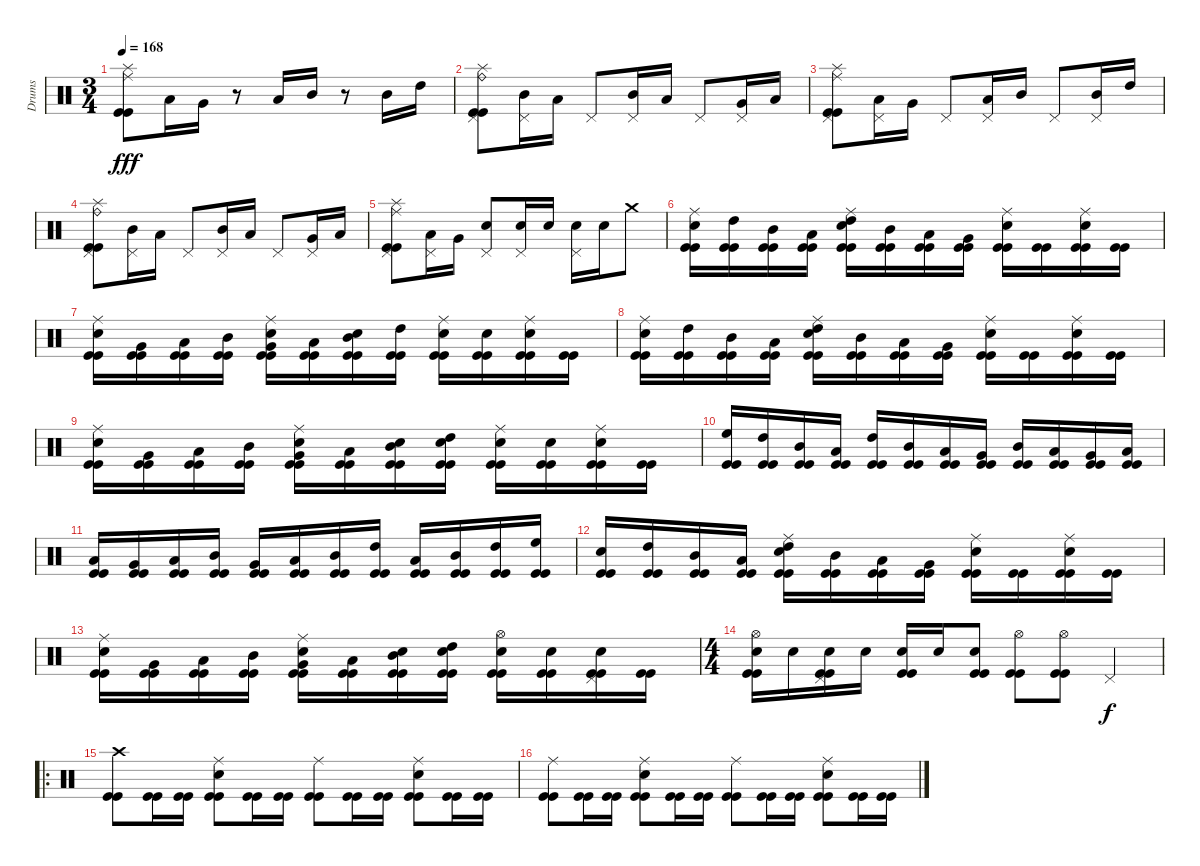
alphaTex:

\track ("Drums" "Drums") {instrument percussion}
\staff {score}
\articulation defaults
\ts (3 4)
\tempo 168
\clef neutral
\ks c
("Splash (hit)" "Ride (middle)" "Kick (hit)" "Kick (hit)").8{dy fff} "Low Floor Tom (hit)".16 "Very Low Tom (hit)".16 r.8 "Low Tom (hit)".16 "Mid Tom (hit)".16 r.8 "Mid Tom (hit)".16 "High Tom (hit)".16 |
("Pedal Hi-Hat (hit)" "Splash (hit)" "Ride (bell)" "Kick (hit)" "Kick (hit)").8 ("Pedal Hi-Hat (hit)" "Mid Tom (hit)").16 "Low Tom (hit)".16 "Pedal Hi-Hat (hit)".8 ("Pedal Hi-Hat (hit)" "Mid Tom (hit)").16 "Low Tom (hit)".16 "Pedal Hi-Hat (hit)".8 ("Pedal Hi-Hat (hit)" "Very Low Tom (hit)").16 "Low Floor Tom (hit)".16 |
("Pedal Hi-Hat (hit)" "Splash (hit)" "Ride (middle)" "Kick (hit)" "Kick (hit)").8 ("Pedal Hi-Hat (hit)" "Low Floor Tom (hit)").16 "Very Low Tom (hit)".16 "Pedal Hi-Hat (hit)".8 ("Pedal Hi-Hat (hit)" "Low Tom (hit)").16 "Mid Tom (hit)".16 "Pedal Hi-Hat (hit)".8 ("Pedal Hi-Hat (hit)" "Mid Tom (hit)").16 "High Tom (hit)".16 |
("Pedal Hi-Hat (hit)" "Splash (hit)" "Ride (bell)" "Kick (hit)" "Kick (hit)").8 ("Pedal Hi-Hat (hit)" "Mid Tom (hit)").16 "Low Tom (hit)".16 "Pedal Hi-Hat (hit)".8 ("Pedal Hi-Hat (hit)" "Mid Tom (hit)").16 "Low Tom (hit)".16 "Pedal Hi-Hat (hit)".8 ("Pedal Hi-Hat (hit)" "Very Low Tom (hit)").16 "Low Floor Tom (hit)".16 |
("Pedal Hi-Hat (hit)" "Splash (hit)" "Ride (middle)" "Kick (hit)" "Kick (hit)").8 ("Pedal Hi-Hat (hit)" "Low Floor Tom (hit)").16 "Very Low Tom (hit)".16 ("Pedal Hi-Hat (hit)" "Electric Snare (hit)").8 ("Pedal Hi-Hat (hit)" "Electric Snare (hit)").16 "Electric Snare (hit)".16 ("Pedal Hi-Hat (hit)" "Electric Snare (hit)").16 "Electric Snare (hit)".16 "Crash medium (hit)".8 |
("Ride (middle)" "Electric Snare (hit)" "Kick (hit)" "Kick (hit)").16 ("High Tom (hit)" "Kick (hit)" "Kick (hit)").16 ("Mid Tom (hit)" "Kick (hit)" "Kick (hit)").16 ("Low Tom (hit)" "Kick (hit)" "Kick (hit)").16 ("Ride (middle)" "High Tom (hit)" "Electric Snare (hit)" "Kick (hit)" "Kick (hit)").16 ("Mid Tom (hit)" "Kick (hit)" "Kick (hit)").16 ("Low Tom (hit)" "Kick (hit)" "Kick (hit)").16 ("Very Low Tom (hit)" "Kick (hit)" "Kick (hit)").16 ("Ride (middle)" "Electric Snare (hit)" "Kick (hit)" "Kick (hit)").16 ("Kick (hit)" "Kick (hit)").16 ("Ride (middle)" "Electric Snare (hit)" "Kick (hit)" "Kick (hit)").16 ("Kick (hit)" "Kick (hit)").16 |
("Ride (middle)" "Electric Snare (hit)" "Kick (hit)" "Kick (hit)").16 ("Very Low Tom (hit)" "Kick (hit)" "Kick (hit)").16 ("Low Tom (hit)" "Kick (hit)" "Kick (hit)").16 ("Mid Tom (hit)" "Kick (hit)" "Kick (hit)").16 ("Ride (middle)" "Very Low Tom (hit)" "Electric Snare (hit)" "Kick (hit)" "Kick (hit)").16 ("Low Tom (hit)" "Kick (hit)" "Kick (hit)").16 ("Mid Tom (hit)" "Electric Snare (hit)" "Kick (hit)" "Kick (hit)").16 ("High Tom (hit)" "Kick (hit)" "Kick (hit)").16 ("Ride (middle)" "Electric Snare (hit)" "Kick (hit)" "Kick (hit)").16 ("Electric Snare (hit)" "Kick (hit)" "Kick (hit)").16 ("Ride (middle)" "Electric Snare (hit)" "Kick (hit)" "Kick (hit)").16 ("Kick (hit)" "Kick (hit)").16 |
("Ride (middle)" "Electric Snare (hit)" "Kick (hit)" "Kick (hit)").16 ("High Tom (hit)" "Kick (hit)" "Kick (hit)").16 ("Mid Tom (hit)" "Kick (hit)" "Kick (hit)").16 ("Low Tom (hit)" "Kick (hit)" "Kick (hit)").16 ("Ride (middle)" "High Tom (hit)" "Electric Snare (hit)" "Kick (hit)" "Kick (hit)").16 ("Mid Tom (hit)" "Kick (hit)" "Kick (hit)").16 ("Low Tom (hit)" "Kick (hit)" "Kick (hit)").16 ("Very Low Tom (hit)" "Kick (hit)" "Kick (hit)").16 ("Ride (middle)" "Electric Snare (hit)" "Kick (hit)" "Kick (hit)").16 ("Kick (hit)" "Kick (hit)").16 ("Ride (middle)" "Electric Snare (hit)" "Kick (hit)" "Kick (hit)").16 ("Kick (hit)" "Kick (hit)").16 |
("Ride (middle)" "Electric Snare (hit)" "Kick (hit)" "Kick (hit)").16 ("Very Low Tom (hit)" "Kick (hit)" "Kick (hit)").16 ("Low Tom (hit)" "Kick (hit)" "Kick (hit)").16 ("Mid Tom (hit)" "Kick (hit)" "Kick (hit)").16 ("Ride (middle)" "Very Low Tom (hit)" "Electric Snare (hit)" "Kick (hit)" "Kick (hit)").16 ("Low Tom (hit)" "Kick (hit)" "Kick (hit)").16 ("Mid Tom (hit)" "Electric Snare (hit)" "Kick (hit)" "Kick (hit)").16 ("High Tom (hit)" "Electric Snare (hit)" "Kick (hit)" "Kick (hit)").16 ("Ride (middle)" "Electric Snare (hit)" "Kick (hit)" "Kick (hit)").16 ("Electric Snare (hit)" "Kick (hit)" "Kick (hit)").16 ("Ride (middle)" "Electric Snare (hit)" "Kick (hit)" "Kick (hit)").16 ("Kick (hit)" "Kick (hit)").16 |
("High Floor Tom (hit)" "Kick (hit)" "Kick (hit)").16 ("High Tom (hit)" "Kick (hit)" "Kick (hit)").16 ("Mid Tom (hit)" "Kick (hit)" "Kick (hit)").16 ("Low Tom (hit)" "Kick (hit)" "Kick (hit)").16 ("High Tom (hit)" "Kick (hit)" "Kick (hit)").16 ("Mid Tom (hit)" "Kick (hit)" "Kick (hit)").16 ("Low Tom (hit)" "Kick (hit)" "Kick (hit)").16 ("Very Low Tom (hit)" "Kick (hit)" "Kick (hit)").16 ("Mid Tom (hit)" "Kick (hit)" "Kick (hit)").16 ("Low Tom (hit)" "Kick (hit)" "Kick (hit)").16 ("Very Low Tom (hit)" "Kick (hit)" "Kick (hit)").16 ("Low Floor Tom (hit)" "Kick (hit)" "Kick (hit)").16 |
("Low Floor Tom (hit)" "Kick (hit)" "Kick (hit)").16 ("Very Low Tom (hit)" "Kick (hit)" "Kick (hit)").16 ("Low Tom (hit)" "Kick (hit)" "Kick (hit)").16 ("Mid Tom (hit)" "Kick (hit)" "Kick (hit)").16 ("Very Low Tom (hit)" "Kick (hit)" "Kick (hit)").16 ("Low Tom (hit)" "Kick (hit)" "Kick (hit)").16 ("Mid Tom (hit)" "Kick (hit)" "Kick (hit)").16 ("High Tom (hit)" "Kick (hit)" "Kick (hit)").16 ("Low Tom (hit)" "Kick (hit)" "Kick (hit)").16 ("Mid Tom (hit)" "Kick (hit)" "Kick (hit)").16 ("High Tom (hit)" "Kick (hit)" "Kick (hit)").16 ("High Floor Tom (hit)" "Kick (hit)" "Kick (hit)").16 |
("Electric Snare (hit)" "Kick (hit)" "Kick (hit)").16 ("High Tom (hit)" "Kick (hit)" "Kick (hit)").16 ("Mid Tom (hit)" "Kick (hit)" "Kick (hit)").16 ("Low Tom (hit)" "Kick (hit)" "Kick (hit)").16 ("Ride (middle)" "High Tom (hit)" "Electric Snare (hit)" "Kick (hit)" "Kick (hit)").16 ("Mid Tom (hit)" "Kick (hit)" "Kick (hit)").16 ("Low Tom (hit)" "Kick (hit)" "Kick (hit)").16 ("Very Low Tom (hit)" "Kick (hit)" "Kick (hit)").16 ("Ride (middle)" "Electric Snare (hit)" "Kick (hit)" "Kick (hit)").16 ("Kick (hit)" "Kick (hit)").16 ("Ride (middle)" "Electric Snare (hit)" "Kick (hit)" "Kick (hit)").16 ("Kick (hit)" "Kick (hit)").16 |
("Ride (middle)" "Electric Snare (hit)" "Kick (hit)" "Kick (hit)").16 ("Very Low Tom (hit)" "Kick (hit)" "Kick (hit)").16 ("Low Tom (hit)" "Kick (hit)" "Kick (hit)").16 ("Mid Tom (hit)" "Kick (hit)" "Kick (hit)").16 ("Ride (middle)" "Very Low Tom (hit)" "Electric Snare (hit)" "Kick (hit)" "Kick (hit)").16 ("Low Tom (hit)" "Kick (hit)" "Kick (hit)").16 ("Mid Tom (hit)" "Electric Snare (hit)" "Kick (hit)" "Kick (hit)").16 ("High Tom (hit)" "Electric Snare (hit)" "Kick (hit)" "Kick (hit)").16 ("Hi-Hat (open)" "Electric Snare (hit)" "Kick (hit)" "Kick (hit)").16 ("Electric Snare (hit)" "Kick (hit)" "Kick (hit)").16 ("Pedal Hi-Hat (hit)" "Electric Snare (hit)" "Kick (hit)" "Kick (hit)").16 ("Kick (hit)" "Kick (hit)").16 |
\ts (4 4)
("Hi-Hat (open)" "Electric Snare (hit)" "Kick (hit)" "Kick (hit)").16 "Electric Snare (hit)".16 ("Pedal Hi-Hat (hit)" "Electric Snare (hit)" "Kick (hit)" "Kick (hit)").16 "Electric Snare (hit)".16 ("Electric Snare (hit)" "Kick (hit)" "Kick (hit)").16 "Electric Snare (hit)".16 ("Electric Snare (hit)" "Kick (hit)" "Kick (hit)").8 ("Hi-Hat (open)" "Kick (hit)" "Kick (hit)").8 ("Hi-Hat (open)" "Kick (hit)" "Kick (hit)").8 "Pedal Hi-Hat (hit)".4{dy f} |
\ro
("Crash high (hit)" "Kick (hit)" "Kick (hit)").8 ("Kick (hit)" "Kick (hit)").16 ("Kick (hit)" "Kick (hit)").16 ("Ride (middle)" "Electric Snare (hit)" "Kick (hit)" "Kick (hit)").8 ("Kick (hit)" "Kick (hit)").16 ("Kick (hit)" "Kick (hit)").16 ("Ride (middle)" "Kick (hit)" "Kick (hit)").8 ("Kick (hit)" "Kick (hit)").16 ("Kick (hit)" "Kick (hit)").16 ("Ride (middle)" "Electric Snare (hit)" "Kick (hit)" "Kick (hit)").8 ("Kick (hit)" "Kick (hit)").16 ("Kick (hit)" "Kick (hit)").16 |
("Ride (middle)" "Kick (hit)" "Kick (hit)").8 ("Kick (hit)" "Kick (hit)").16 ("Kick (hit)" "Kick (hit)").16 ("Ride (middle)" "Electric Snare (hit)" "Kick (hit)" "Kick (hit)").8 ("Kick (hit)" "Kick (hit)").16 ("Kick (hit)" "Kick (hit)").16 ("Ride (middle)" "Kick (hit)" "Kick (hit)").8 ("Kick (hit)" "Kick (hit)").16 ("Kick (hit)" "Kick (hit)").16 ("Ride (middle)" "Electric Snare (hit)" "Kick (hit)" "Kick (hit)").8 ("Kick (hit)" "Kick (hit)").16 ("Kick (hit)" "Kick (hit)").16
